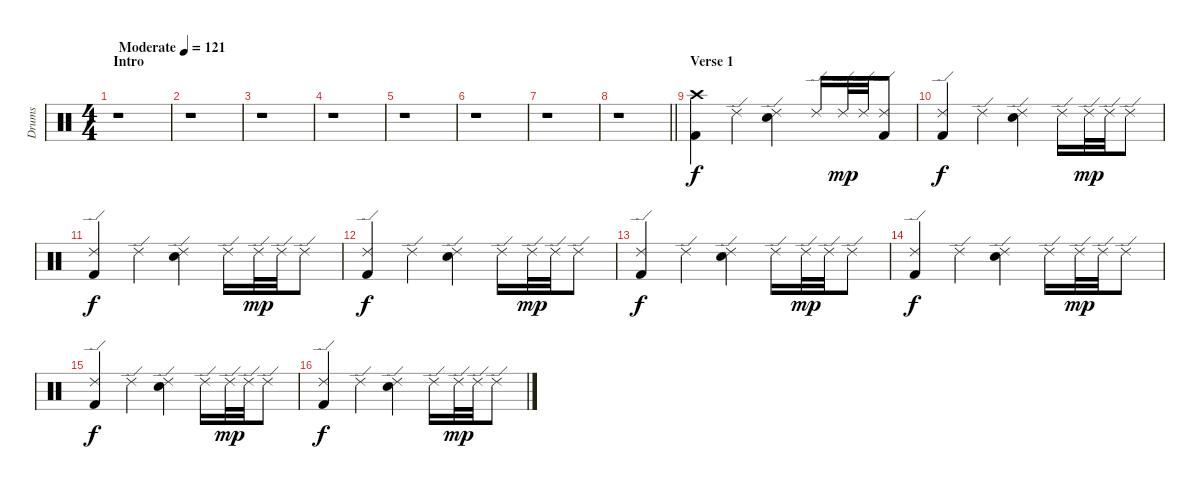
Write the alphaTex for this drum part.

\track ("Drums" "Drums") {instrument percussion}
\staff {score}
\articulation defaults
\ts (4 4)
\section ("" "Intro")
\tempo (121 "Moderate")
\clef neutral
\ks c
r.1{dy f} |
r.1 |
r.1 |
r.1 |
r.1 |
r.1 |
r.1 |
\barLineRight lightlight
r.1 |
\section ("" "Verse 1")
("Crash high (hit)" "Kick (hit) 2").4 "Ride (edge) 2".4 ("Ride (edge) 2" "Electric Snare (hit)").4 "Ride (edge) 2".16 "Ride (edge) 2".32{dy mp} "Ride (edge) 2".32 ("Ride (edge) 2" "Kick (hit) 2").8 |
("Ride (edge) 2" "Kick (hit) 2").4{dy f} "Ride (edge) 2".4 ("Ride (edge) 2" "Electric Snare (hit)").4 "Ride (edge) 2".16 "Ride (edge) 2".32{dy mp} "Ride (edge) 2".32 "Ride (edge) 2".8 |
("Ride (edge) 2" "Kick (hit) 2").4{dy f} "Ride (edge) 2".4 ("Ride (edge) 2" "Electric Snare (hit)").4 "Ride (edge) 2".16 "Ride (edge) 2".32{dy mp} "Ride (edge) 2".32 "Ride (edge) 2".8 |
("Ride (edge) 2" "Kick (hit) 2").4{dy f} "Ride (edge) 2".4 ("Ride (edge) 2" "Electric Snare (hit)").4 "Ride (edge) 2".16 "Ride (edge) 2".32{dy mp} "Ride (edge) 2".32 "Ride (edge) 2".8 |
("Ride (edge) 2" "Kick (hit) 2").4{dy f} "Ride (edge) 2".4 ("Ride (edge) 2" "Electric Snare (hit)").4 "Ride (edge) 2".16 "Ride (edge) 2".32{dy mp} "Ride (edge) 2".32 "Ride (edge) 2".8 |
("Ride (edge) 2" "Kick (hit) 2").4{dy f} "Ride (edge) 2".4 ("Ride (edge) 2" "Electric Snare (hit)").4 "Ride (edge) 2".16 "Ride (edge) 2".32{dy mp} "Ride (edge) 2".32 "Ride (edge) 2".8 |
("Ride (edge) 2" "Kick (hit) 2").4{dy f} "Ride (edge) 2".4 ("Ride (edge) 2" "Electric Snare (hit)").4 "Ride (edge) 2".16 "Ride (edge) 2".32{dy mp} "Ride (edge) 2".32 "Ride (edge) 2".8 |
("Ride (edge) 2" "Kick (hit) 2").4{dy f} "Ride (edge) 2".4 ("Ride (edge) 2" "Electric Snare (hit)").4 "Ride (edge) 2".16 "Ride (edge) 2".32{dy mp} "Ride (edge) 2".32 "Ride (edge) 2".8
